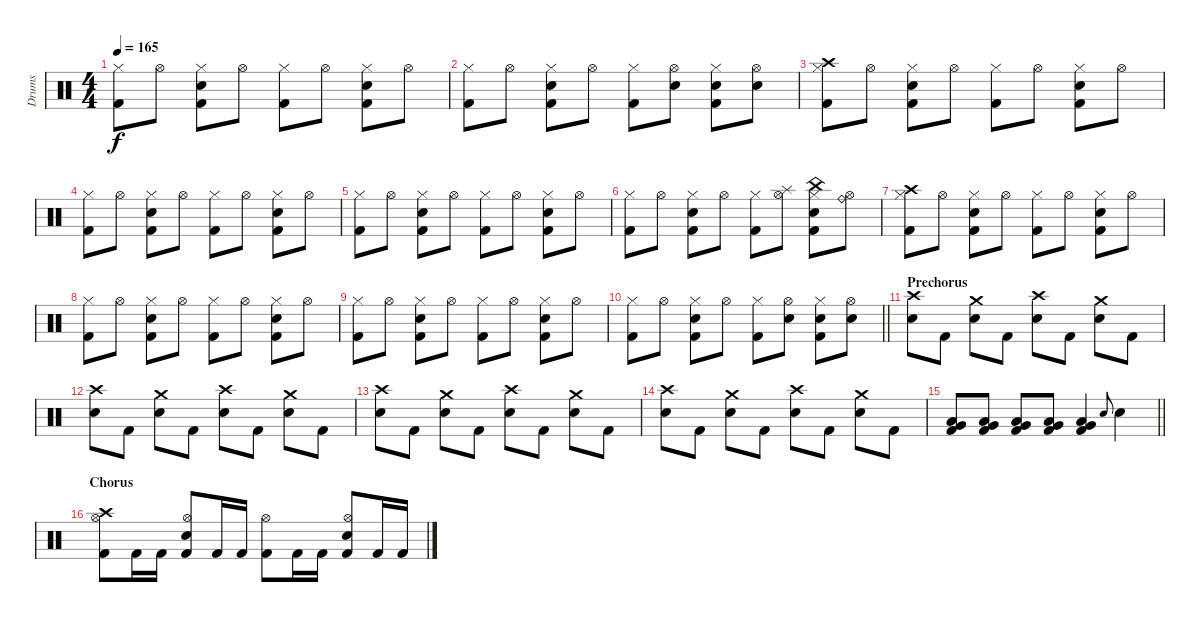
\track ("Drums" "Drums") {instrument percussion}
\staff {score}
\articulation defaults
\ts (4 4)
\tempo 165
\clef neutral
\ks c
("Hi-Hat (closed)" "Kick (hit) 2").8{dy f} "Hi-Hat (open)".8 ("Hi-Hat (closed)" "Snare (hit) 2" "Kick (hit) 2").8 "Hi-Hat (open)".8 ("Hi-Hat (closed)" "Kick (hit) 2").8 "Hi-Hat (open)".8 ("Hi-Hat (closed)" "Snare (hit) 2" "Kick (hit) 2").8 "Hi-Hat (open)".8 |
("Hi-Hat (closed)" "Kick (hit) 2").8 "Hi-Hat (open)".8 ("Hi-Hat (closed)" "Snare (hit) 2" "Kick (hit) 2").8 "Hi-Hat (open)".8 ("Hi-Hat (closed)" "Kick (hit) 2").8 ("Hi-Hat (open)" "Snare (hit) 2").8 ("Hi-Hat (closed)" "Snare (hit) 2" "Kick (hit) 2").8 ("Hi-Hat (open)" "Snare (hit) 2").8 |
("Crash high (hit)" "Hi-Hat (closed)" "Kick (hit) 2").8 "Hi-Hat (open)".8 ("Hi-Hat (closed)" "Snare (hit) 2" "Kick (hit) 2").8 "Hi-Hat (open)".8 ("Hi-Hat (closed)" "Kick (hit) 2").8 "Hi-Hat (open)".8 ("Hi-Hat (closed)" "Snare (hit) 2" "Kick (hit) 2").8 "Hi-Hat (open)".8 |
("Hi-Hat (closed)" "Kick (hit) 2").8 "Hi-Hat (open)".8 ("Hi-Hat (closed)" "Snare (hit) 2" "Kick (hit) 2").8 "Hi-Hat (open)".8 ("Hi-Hat (closed)" "Kick (hit) 2").8 "Hi-Hat (open)".8 ("Hi-Hat (closed)" "Snare (hit) 2" "Kick (hit) 2").8 "Hi-Hat (open)".8 |
("Hi-Hat (closed)" "Kick (hit) 2").8 "Hi-Hat (open)".8 ("Hi-Hat (closed)" "Snare (hit) 2" "Kick (hit) 2").8 "Hi-Hat (open)".8 ("Hi-Hat (closed)" "Kick (hit) 2").8 "Hi-Hat (open)".8 ("Hi-Hat (closed)" "Snare (hit) 2" "Kick (hit) 2").8 "Hi-Hat (open)".8 |
("Hi-Hat (closed)" "Kick (hit) 2").8 "Hi-Hat (open)".8 ("Hi-Hat (closed)" "Snare (hit) 2" "Kick (hit) 2").8 "Hi-Hat (open)".8 ("Hi-Hat (closed)" "Kick (hit) 2").8 ("Splash (hit)" "Hi-Hat (open)").8 ("China (hit)" "Hi-Hat (closed)" "Snare (hit) 2" "Kick (hit) 2").8 ("Ride (bell)" "Hi-Hat (open)").8 |
("Crash high (hit)" "Hi-Hat (closed)" "Kick (hit) 2").8 "Hi-Hat (open)".8 ("Hi-Hat (closed)" "Snare (hit) 2" "Kick (hit) 2").8 "Hi-Hat (open)".8 ("Hi-Hat (closed)" "Kick (hit) 2").8 "Hi-Hat (open)".8 ("Hi-Hat (closed)" "Snare (hit) 2" "Kick (hit) 2").8 "Hi-Hat (open)".8 |
("Hi-Hat (closed)" "Kick (hit) 2").8 "Hi-Hat (open)".8 ("Hi-Hat (closed)" "Snare (hit) 2" "Kick (hit) 2").8 "Hi-Hat (open)".8 ("Hi-Hat (closed)" "Kick (hit) 2").8 "Hi-Hat (open)".8 ("Hi-Hat (closed)" "Snare (hit) 2" "Kick (hit) 2").8 "Hi-Hat (open)".8 |
("Hi-Hat (closed)" "Kick (hit) 2").8 "Hi-Hat (open)".8 ("Hi-Hat (closed)" "Snare (hit) 2" "Kick (hit) 2").8 "Hi-Hat (open)".8 ("Hi-Hat (closed)" "Kick (hit) 2").8 "Hi-Hat (open)".8 ("Hi-Hat (closed)" "Snare (hit) 2" "Kick (hit) 2").8 "Hi-Hat (open)".8 |
\barLineRight lightlight
("Hi-Hat (closed)" "Kick (hit) 2").8 "Hi-Hat (open)".8 ("Hi-Hat (closed)" "Snare (hit) 2" "Kick (hit) 2").8 "Hi-Hat (open)".8 ("Hi-Hat (closed)" "Kick (hit) 2").8 ("Hi-Hat (open)" "Snare (hit) 2").8 ("Hi-Hat (closed)" "Snare (hit) 2" "Kick (hit) 2").8 ("Hi-Hat (open)" "Snare (hit) 2").8 |
\section ("" "Prechorus")
("Crash high (hit)" "Snare (hit) 2").8 "Kick (hit) 2".8 ("Crash medium (hit)" "Snare (hit) 2").8 "Kick (hit) 2".8 ("Crash high (hit)" "Snare (hit) 2").8 "Kick (hit) 2".8 ("Crash medium (hit)" "Snare (hit) 2").8 "Kick (hit) 2".8 |
("Crash high (hit)" "Snare (hit) 2").8 "Kick (hit) 2".8 ("Crash medium (hit)" "Snare (hit) 2").8 "Kick (hit) 2".8 ("Crash high (hit)" "Snare (hit) 2").8 "Kick (hit) 2".8 ("Crash medium (hit)" "Snare (hit) 2").8 "Kick (hit) 2".8 |
("Crash high (hit)" "Snare (hit) 2").8 "Kick (hit) 2".8 ("Crash medium (hit)" "Snare (hit) 2").8 "Kick (hit) 2".8 ("Crash high (hit)" "Snare (hit) 2").8 "Kick (hit) 2".8 ("Crash medium (hit)" "Snare (hit) 2").8 "Kick (hit) 2".8 |
("Crash high (hit)" "Snare (hit) 2").8 "Kick (hit) 2".8 ("Crash medium (hit)" "Snare (hit) 2").8 "Kick (hit) 2".8 ("Crash high (hit)" "Snare (hit) 2").8 "Kick (hit) 2".8 ("Crash medium (hit)" "Snare (hit) 2").8 "Kick (hit) 2".8 |
\barLineRight lightlight
("Very Low Tom (hit)" "Low Floor Tom (hit)" "Kick (hit) 2").8 ("Very Low Tom (hit)" "Low Floor Tom (hit)" "Kick (hit) 2").8 ("Very Low Tom (hit)" "Low Floor Tom (hit)" "Kick (hit) 2").8 ("Very Low Tom (hit)" "Low Floor Tom (hit)" "Kick (hit) 2").8 ("Very Low Tom (hit)" "Low Floor Tom (hit)" "Kick (hit) 2").4 "Snare (hit) 2".8{gr onbeat} "Snare (hit) 2".4 |
\section ("" "Chorus")
("Crash high (hit)" "Hi-Hat (open)" "Kick (hit) 2").8 "Kick (hit) 2".16 "Kick (hit) 2".16 ("Hi-Hat (open)" "Snare (hit) 2" "Kick (hit) 2").8 "Kick (hit) 2".16 "Kick (hit) 2".16 ("Hi-Hat (open)" "Kick (hit) 2").8 "Kick (hit) 2".16 "Kick (hit) 2".16 ("Hi-Hat (open)" "Snare (hit) 2" "Kick (hit) 2").8 "Kick (hit) 2".16 "Kick (hit) 2".16
